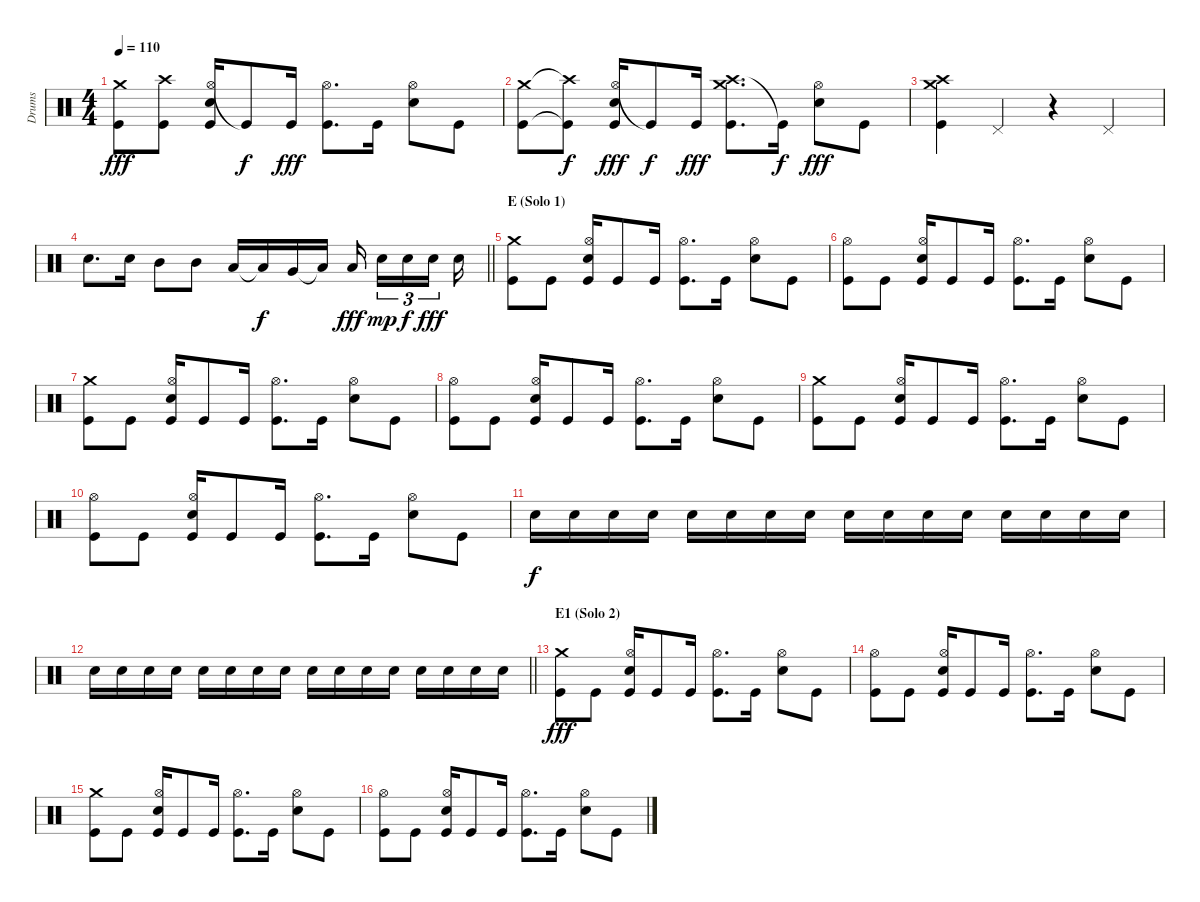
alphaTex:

\track ("Drums" "Drums") {instrument percussion}
\staff {score}
\articulation defaults
\ts (4 4)
\tempo 110
\clef neutral
\ks c
("Crash medium (hit)" "Kick (hit)").8{dy fff} ("Crash high (hit)" "Kick (hit)").8 ("Hi-Hat (open)" "Electric Snare (hit)" "Kick (hit)").16 "Kick (hit)"{t}.8{dy f} "Kick (hit)".16{dy fff} ("Hi-Hat (open)" "Kick (hit)").8{d} "Kick (hit)".16 ("Hi-Hat (open)" "Electric Snare (hit)").8 "Kick (hit)".8 |
("Crash medium (hit)" "Kick (hit)").8 ("Crash high (hit)"{t} "Kick (hit)"{t}).8{dy f} ("Hi-Hat (open)" "Electric Snare (hit)" "Kick (hit)").16{dy fff} "Kick (hit)"{t}.8{dy f} "Kick (hit)".16{dy fff} ("Crash high (hit)" "Crash medium (hit)" "Kick (hit)").8{d} "Kick (hit)"{t}.16{dy f} ("Hi-Hat (open)" "Electric Snare (hit)").8{dy fff} "Kick (hit)".8 |
("Crash medium (hit)" "Crash high (hit)" "Kick (hit)").4 "Pedal Hi-Hat (hit)".4 r.4 "Pedal Hi-Hat (hit)".4 |
\barLineRight lightlight "Electric Snare (hit)".8{d} "Electric Snare (hit)".16 "Mid Tom (hit)".8 "Mid Tom (hit)".8 "Low Tom (hit)".16 "Low Tom (hit)"{t}.16{dy f} "Very Low Tom (hit)".16 "Low Tom (hit)"{t}.16 "Low Floor Tom (hit)".16{dy fff beam splitsecondary} "Electric Snare (hit)".16{tu (3 2) dy mp} "Electric Snare (hit)".16{tu (3 2) dy f} "Electric Snare (hit)".16{tu (3 2) dy fff beam splitsecondary} "Electric Snare (hit)".16
|
\section ("" "E (Solo 1)")
("Crash medium (hit)" "Kick (hit)").8 "Kick (hit)".8 ("Hi-Hat (open)" "Electric Snare (hit)" "Kick (hit)").16 "Kick (hit)".8 "Kick (hit)".16 ("Hi-Hat (open)" "Kick (hit)").8{d} "Kick (hit)".16 ("Hi-Hat (open)" "Electric Snare (hit)").8 "Kick (hit)".8 |
("Hi-Hat (open)" "Kick (hit)").8 "Kick (hit)".8 ("Hi-Hat (open)" "Electric Snare (hit)" "Kick (hit)").16 "Kick (hit)".8 "Kick (hit)".16 ("Hi-Hat (open)" "Kick (hit)").8{d} "Kick (hit)".16 ("Hi-Hat (open)" "Electric Snare (hit)").8 "Kick (hit)".8 |
("Crash medium (hit)" "Kick (hit)").8 "Kick (hit)".8 ("Hi-Hat (open)" "Electric Snare (hit)" "Kick (hit)").16 "Kick (hit)".8 "Kick (hit)".16 ("Hi-Hat (open)" "Kick (hit)").8{d} "Kick (hit)".16 ("Hi-Hat (open)" "Electric Snare (hit)").8 "Kick (hit)".8 |
("Hi-Hat (open)" "Kick (hit)").8 "Kick (hit)".8 ("Hi-Hat (open)" "Electric Snare (hit)" "Kick (hit)").16 "Kick (hit)".8 "Kick (hit)".16 ("Hi-Hat (open)" "Kick (hit)").8{d} "Kick (hit)".16 ("Hi-Hat (open)" "Electric Snare (hit)").8 "Kick (hit)".8 |
("Crash medium (hit)" "Kick (hit)").8 "Kick (hit)".8 ("Hi-Hat (open)" "Electric Snare (hit)" "Kick (hit)").16 "Kick (hit)".8 "Kick (hit)".16 ("Hi-Hat (open)" "Kick (hit)").8{d} "Kick (hit)".16 ("Hi-Hat (open)" "Electric Snare (hit)").8 "Kick (hit)".8 |
("Hi-Hat (open)" "Kick (hit)").8 "Kick (hit)".8 ("Hi-Hat (open)" "Electric Snare (hit)" "Kick (hit)").16 "Kick (hit)".8 "Kick (hit)".16 ("Hi-Hat (open)" "Kick (hit)").8{d} "Kick (hit)".16 ("Hi-Hat (open)" "Electric Snare (hit)").8 "Kick (hit)".8 |
"Electric Snare (hit)".16{dy f} "Electric Snare (hit)".16 "Electric Snare (hit)".16 "Electric Snare (hit)".16 "Electric Snare (hit)".16 "Electric Snare (hit)".16 "Electric Snare (hit)".16 "Electric Snare (hit)".16 "Electric Snare (hit)".16 "Electric Snare (hit)".16 "Electric Snare (hit)".16 "Electric Snare (hit)".16 "Electric Snare (hit)".16 "Electric Snare (hit)".16 "Electric Snare (hit)".16 "Electric Snare (hit)".16 |
\barLineRight lightlight "Electric Snare (hit)".16 "Electric Snare (hit)".16 "Electric Snare (hit)".16 "Electric Snare (hit)".16 "Electric Snare (hit)".16 "Electric Snare (hit)".16 "Electric Snare (hit)".16 "Electric Snare (hit)".16 "Electric Snare (hit)".16 "Electric Snare (hit)".16 "Electric Snare (hit)".16 "Electric Snare (hit)".16 "Electric Snare (hit)".16 "Electric Snare (hit)".16 "Electric Snare (hit)".16 "Electric Snare (hit)".16
|
\section ("" "E1 (Solo 2)")
("Crash medium (hit)" "Kick (hit)").8{dy fff} "Kick (hit)".8 ("Hi-Hat (open)" "Electric Snare (hit)" "Kick (hit)").16 "Kick (hit)".8 "Kick (hit)".16 ("Hi-Hat (open)" "Kick (hit)").8{d} "Kick (hit)".16 ("Hi-Hat (open)" "Electric Snare (hit)").8 "Kick (hit)".8 |
("Hi-Hat (open)" "Kick (hit)").8 "Kick (hit)".8 ("Hi-Hat (open)" "Electric Snare (hit)" "Kick (hit)").16 "Kick (hit)".8 "Kick (hit)".16 ("Hi-Hat (open)" "Kick (hit)").8{d} "Kick (hit)".16 ("Hi-Hat (open)" "Electric Snare (hit)").8 "Kick (hit)".8 |
("Crash medium (hit)" "Kick (hit)").8 "Kick (hit)".8 ("Hi-Hat (open)" "Electric Snare (hit)" "Kick (hit)").16 "Kick (hit)".8 "Kick (hit)".16 ("Hi-Hat (open)" "Kick (hit)").8{d} "Kick (hit)".16 ("Hi-Hat (open)" "Electric Snare (hit)").8 "Kick (hit)".8 |
("Hi-Hat (open)" "Kick (hit)").8 "Kick (hit)".8 ("Hi-Hat (open)" "Electric Snare (hit)" "Kick (hit)").16 "Kick (hit)".8 "Kick (hit)".16 ("Hi-Hat (open)" "Kick (hit)").8{d} "Kick (hit)".16 ("Hi-Hat (open)" "Electric Snare (hit)").8 "Kick (hit)".8
